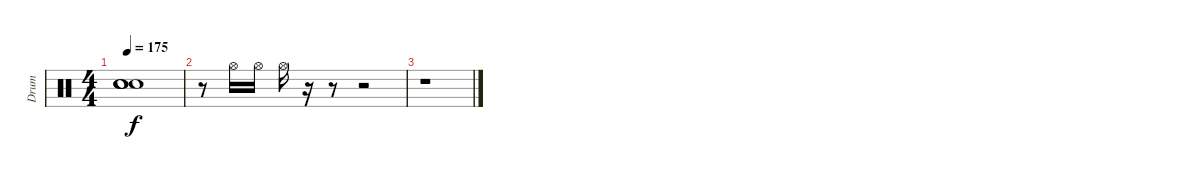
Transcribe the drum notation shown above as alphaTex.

\track ("Drum" "Drum") {instrument percussion}
\staff {score}
\articulation defaults
\ts (4 4)
\tempo 175
\clef neutral
\ks c
("Snare (hit)"{t} "Snare (hit)"{t} "Snare (hit)"{t} "Snare (hit)"{t}).1{dy f} |
r.8 "Hi-Hat (open)".16 "Hi-Hat (open)".16 "Hi-Hat (open)".16 r.16 r.8 r.2 |
r.1
